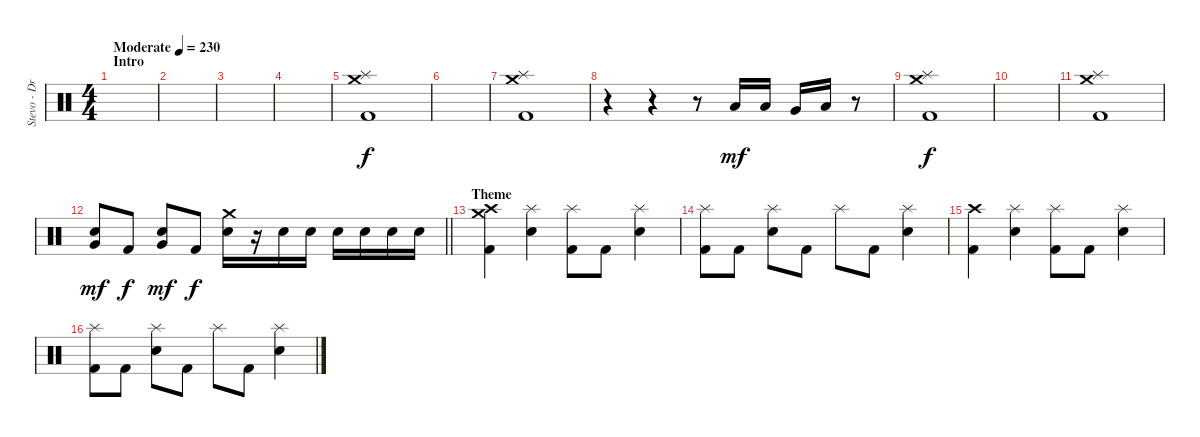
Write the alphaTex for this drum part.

\track ("Stevo - Drums" "Stevo - Dr") {instrument percussion}
\staff {score}
\articulation defaults
\ts (4 4)
\section ("" "Intro")
\tempo (230 "Moderate")
\clef neutral
\ks c
|
|
|
|
("Crash medium (hit)" "Splash (hit)" "Kick (hit) 2").1 |
|
("Crash medium (hit)" "Splash (hit)" "Kick (hit) 2").1 |
r.4 r.4 r.8 "Low Tom (hit)".16{dy mf} "Low Tom (hit)".16 "Very Low Tom (hit)".16 "Low Floor Tom (hit)".16 r.8 |
("Crash medium (hit)" "Splash (hit)" "Kick (hit) 2").1{dy f} |
|
("Crash medium (hit)" "Splash (hit)" "Kick (hit) 2").1 |
\barLineRight lightlight
("Electric Snare (hit)" "Very Low Tom (hit)").8{dy mf} "Kick (hit) 2".8{dy f} ("Electric Snare (hit)" "Very Low Tom (hit)").8{dy mf} "Kick (hit) 2".8{dy f} ("Crash medium (hit)" "Electric Snare (hit)").16 r.16 "Electric Snare (hit)".16 "Electric Snare (hit)".16 "Electric Snare (hit)".16 "Electric Snare (hit)".16 "Electric Snare (hit)".16 "Electric Snare (hit)".16 |
\section ("" "Theme")
("Crash high (hit)" "Crash medium (hit)" "Kick (hit) 2").4 ("Splash (hit)" "Electric Snare (hit)").4 ("Splash (hit)" "Kick (hit) 2").8 "Kick (hit) 2".8 ("Splash (hit)" "Electric Snare (hit)").4 |
("Splash (hit)" "Kick (hit) 2").8 "Kick (hit) 2".8 ("Splash (hit)" "Electric Snare (hit)").8 "Kick (hit) 2".8 "Splash (hit)".8 "Kick (hit) 2".8 ("Splash (hit)" "Electric Snare (hit)").4 |
("Crash high (hit)" "Kick (hit) 2").4 ("Splash (hit)" "Electric Snare (hit)").4 ("Splash (hit)" "Kick (hit) 2").8 "Kick (hit) 2".8 ("Splash (hit)" "Electric Snare (hit)").4 |
("Splash (hit)" "Kick (hit) 2").8 "Kick (hit) 2".8 ("Splash (hit)" "Electric Snare (hit)").8 "Kick (hit) 2".8 "Splash (hit)".8 "Kick (hit) 2".8 ("Splash (hit)" "Electric Snare (hit)").4
